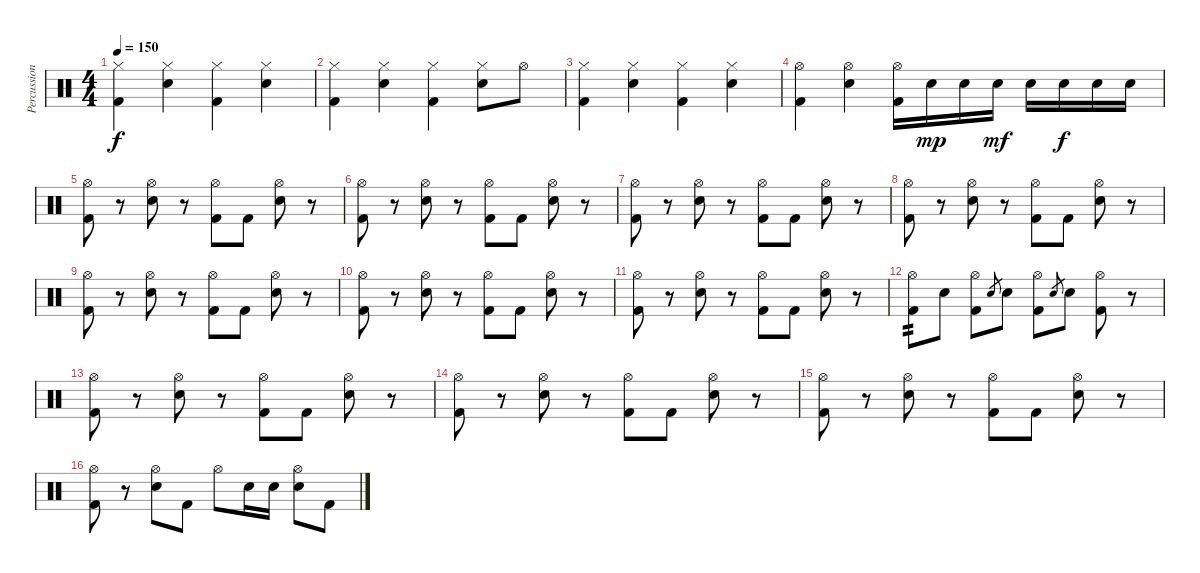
\track ("Percussion" "Percussion") {instrument percussion}
\staff {score}
\articulation defaults
\ts (4 4)
\tempo 150
\clef neutral
\ks c
("Hi-Hat (closed)" "Kick (hit) 2").4{dy f} ("Hi-Hat (closed)" "Electric Snare (hit)").4 ("Hi-Hat (closed)" "Kick (hit) 2").4 ("Hi-Hat (closed)" "Electric Snare (hit)").4 |
("Hi-Hat (closed)" "Kick (hit) 2").4 ("Hi-Hat (closed)" "Electric Snare (hit)").4 ("Hi-Hat (closed)" "Kick (hit) 2").4 ("Hi-Hat (closed)" "Electric Snare (hit)").8 "Hi-Hat (open)".8 |
("Hi-Hat (closed)" "Kick (hit) 2").4 ("Hi-Hat (closed)" "Electric Snare (hit)").4 ("Hi-Hat (closed)" "Kick (hit) 2").4 ("Hi-Hat (closed)" "Electric Snare (hit)").4 |
("Hi-Hat (open)" "Kick (hit) 2").4 ("Hi-Hat (open)" "Electric Snare (hit)").4 ("Hi-Hat (open)" "Kick (hit) 2").16 "Electric Snare (hit)".16{dy mp} "Electric Snare (hit)".16 "Electric Snare (hit)".16{dy mf} "Electric Snare (hit)".16 "Electric Snare (hit)".16{dy f} "Electric Snare (hit)".16 "Electric Snare (hit)".16 |
("Hi-Hat (open)" "Kick (hit) 2").8 r.8 ("Hi-Hat (open)" "Electric Snare (hit)").8 r.8 ("Hi-Hat (open)" "Kick (hit) 2").8 "Kick (hit) 2".8 ("Hi-Hat (open)" "Electric Snare (hit)").8 r.8 |
("Hi-Hat (open)" "Kick (hit) 2").8 r.8 ("Hi-Hat (open)" "Electric Snare (hit)").8 r.8 ("Hi-Hat (open)" "Kick (hit) 2").8 "Kick (hit) 2".8 ("Hi-Hat (open)" "Electric Snare (hit)").8 r.8 |
("Hi-Hat (open)" "Kick (hit) 2").8 r.8 ("Hi-Hat (open)" "Electric Snare (hit)").8 r.8 ("Hi-Hat (open)" "Kick (hit) 2").8 "Kick (hit) 2".8 ("Hi-Hat (open)" "Electric Snare (hit)").8 r.8 |
("Hi-Hat (open)" "Kick (hit) 2").8 r.8 ("Hi-Hat (open)" "Electric Snare (hit)").8 r.8 ("Hi-Hat (open)" "Kick (hit) 2").8 "Kick (hit) 2".8 ("Hi-Hat (open)" "Electric Snare (hit)").8 r.8 |
("Hi-Hat (open)" "Kick (hit) 2").8 r.8 ("Hi-Hat (open)" "Electric Snare (hit)").8 r.8 ("Hi-Hat (open)" "Kick (hit) 2").8 "Kick (hit) 2".8 ("Hi-Hat (open)" "Electric Snare (hit)").8 r.8 |
("Hi-Hat (open)" "Kick (hit) 2").8 r.8 ("Hi-Hat (open)" "Electric Snare (hit)").8 r.8 ("Hi-Hat (open)" "Kick (hit) 2").8 "Kick (hit) 2".8 ("Hi-Hat (open)" "Electric Snare (hit)").8 r.8 |
("Hi-Hat (open)" "Kick (hit) 2").8 r.8 ("Hi-Hat (open)" "Electric Snare (hit)").8 r.8 ("Hi-Hat (open)" "Kick (hit) 2").8 "Kick (hit) 2".8 ("Hi-Hat (open)" "Electric Snare (hit)").8 r.8 |
("Hi-Hat (open)" "Kick (hit) 2").8{tp 2} "Electric Snare (hit)".8 ("Hi-Hat (open)" "Kick (hit) 2").8 "Electric Snare (hit)".8{gr} "Electric Snare (hit)".8 ("Hi-Hat (open)" "Kick (hit) 2").8 "Electric Snare (hit)".8{gr} "Electric Snare (hit)".8 ("Hi-Hat (open)" "Kick (hit) 2").8 r.8 |
("Hi-Hat (open)" "Kick (hit) 2").8 r.8 ("Hi-Hat (open)" "Electric Snare (hit)").8 r.8 ("Hi-Hat (open)" "Kick (hit) 2").8 "Kick (hit) 2".8 ("Hi-Hat (open)" "Electric Snare (hit)").8 r.8 |
("Hi-Hat (open)" "Kick (hit) 2").8 r.8 ("Hi-Hat (open)" "Electric Snare (hit)").8 r.8 ("Hi-Hat (open)" "Kick (hit) 2").8 "Kick (hit) 2".8 ("Hi-Hat (open)" "Electric Snare (hit)").8 r.8 |
("Hi-Hat (open)" "Kick (hit) 2").8 r.8 ("Hi-Hat (open)" "Electric Snare (hit)").8 r.8 ("Hi-Hat (open)" "Kick (hit) 2").8 "Kick (hit) 2".8 ("Hi-Hat (open)" "Electric Snare (hit)").8 r.8 |
("Hi-Hat (open)" "Kick (hit) 2").8 r.8 ("Hi-Hat (open)" "Electric Snare (hit)").8 "Kick (hit) 2".8 "Hi-Hat (open)".8 "Electric Snare (hit)".16 "Electric Snare (hit)".16 ("Hi-Hat (open)" "Electric Snare (hit)").8 "Kick (hit) 2".8
